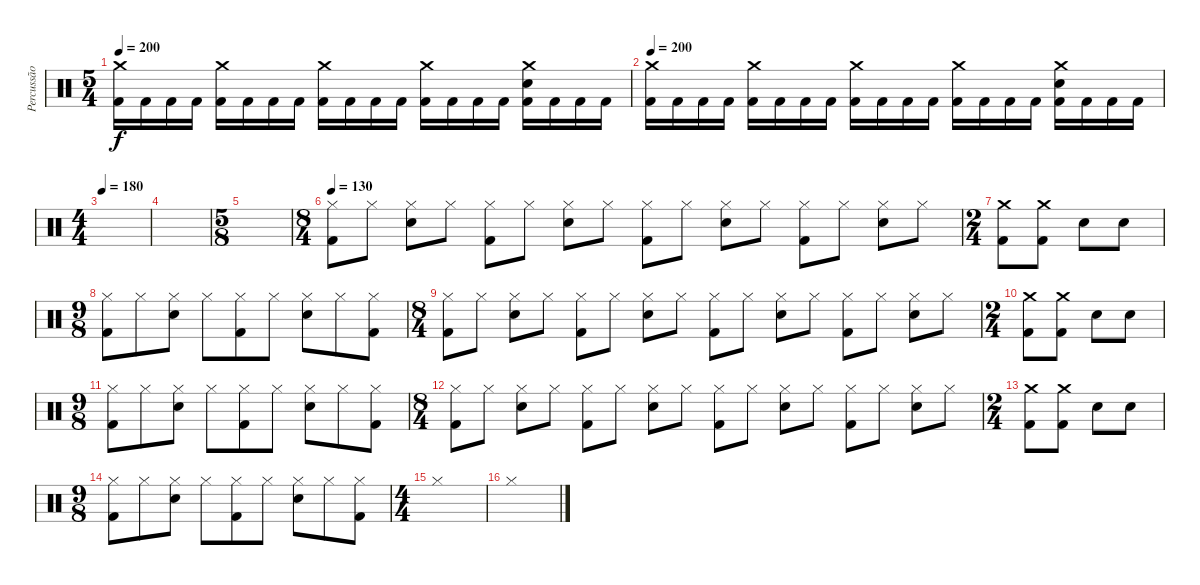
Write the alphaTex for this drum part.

\track ("Percussão" "Percussão") {instrument percussion}
\staff {score}
\articulation defaults
\ts (5 4)
\tempo 200
\clef neutral
\ks c
("Crash medium (hit)" "Kick (hit) 2").16{dy f} "Kick (hit) 2".16 "Kick (hit) 2".16 "Kick (hit) 2".16 ("Crash medium (hit)" "Kick (hit) 2").16 "Kick (hit) 2".16 "Kick (hit) 2".16 "Kick (hit) 2".16 ("Crash medium (hit)" "Kick (hit) 2").16 "Kick (hit) 2".16 "Kick (hit) 2".16 "Kick (hit) 2".16 ("Crash medium (hit)" "Kick (hit) 2").16 "Kick (hit) 2".16 "Kick (hit) 2".16 "Kick (hit) 2".16 ("Crash medium (hit)" "Electric Snare (hit)" "Kick (hit) 2").16 "Kick (hit) 2".16 "Kick (hit) 2".16 "Kick (hit) 2".16 |
\tempo 200
("Crash medium (hit)" "Kick (hit) 2").16 "Kick (hit) 2".16 "Kick (hit) 2".16 "Kick (hit) 2".16 ("Crash medium (hit)" "Kick (hit) 2").16 "Kick (hit) 2".16 "Kick (hit) 2".16 "Kick (hit) 2".16 ("Crash medium (hit)" "Kick (hit) 2").16 "Kick (hit) 2".16 "Kick (hit) 2".16 "Kick (hit) 2".16 ("Crash medium (hit)" "Kick (hit) 2").16 "Kick (hit) 2".16 "Kick (hit) 2".16 "Kick (hit) 2".16 ("Crash medium (hit)" "Electric Snare (hit)" "Kick (hit) 2").16 "Kick (hit) 2".16 "Kick (hit) 2".16 "Kick (hit) 2".16 |
\ts (4 4)
\tempo 180
|
|
\ts (5 8)
|
\ts (8 4)
\tempo 130
("Hi-Hat (closed)" "Kick (hit) 2").8 "Hi-Hat (closed)".8 ("Hi-Hat (closed)" "Snare (hit) 2").8 "Hi-Hat (closed)".8 ("Hi-Hat (closed)" "Kick (hit) 2").8 "Hi-Hat (closed)".8 ("Hi-Hat (closed)" "Snare (hit) 2").8 "Hi-Hat (closed)".8 ("Hi-Hat (closed)" "Kick (hit) 2").8 "Hi-Hat (closed)".8 ("Hi-Hat (closed)" "Snare (hit) 2").8 "Hi-Hat (closed)".8 ("Hi-Hat (closed)" "Kick (hit) 2").8 "Hi-Hat (closed)".8 ("Hi-Hat (closed)" "Snare (hit) 2").8 "Hi-Hat (closed)".8 |
\ts (2 4)
("Crash medium (hit)" "Kick (hit) 2").8 ("Crash medium (hit)" "Kick (hit) 2").8 "Electric Snare (hit)".8 "Electric Snare (hit)".8 |
\ts (9 8)
("Hi-Hat (closed)" "Kick (hit) 2").8 "Hi-Hat (closed)".8 ("Hi-Hat (closed)" "Snare (hit) 2").8 "Hi-Hat (closed)".8 ("Hi-Hat (closed)" "Kick (hit) 2").8 "Hi-Hat (closed)".8 ("Hi-Hat (closed)" "Snare (hit) 2").8 "Hi-Hat (closed)".8 ("Hi-Hat (closed)" "Kick (hit) 2").8 |
\ts (8 4)
("Hi-Hat (closed)" "Kick (hit) 2").8 "Hi-Hat (closed)".8 ("Hi-Hat (closed)" "Snare (hit) 2").8 "Hi-Hat (closed)".8 ("Hi-Hat (closed)" "Kick (hit) 2").8 "Hi-Hat (closed)".8 ("Hi-Hat (closed)" "Snare (hit) 2").8 "Hi-Hat (closed)".8 ("Hi-Hat (closed)" "Kick (hit) 2").8 "Hi-Hat (closed)".8 ("Hi-Hat (closed)" "Snare (hit) 2").8 "Hi-Hat (closed)".8 ("Hi-Hat (closed)" "Kick (hit) 2").8 "Hi-Hat (closed)".8 ("Hi-Hat (closed)" "Snare (hit) 2").8 "Hi-Hat (closed)".8 |
\ts (2 4)
("Crash medium (hit)" "Kick (hit) 2").8 ("Crash medium (hit)" "Kick (hit) 2").8 "Electric Snare (hit)".8 "Electric Snare (hit)".8 |
\ts (9 8)
("Hi-Hat (closed)" "Kick (hit) 2").8 "Hi-Hat (closed)".8 ("Hi-Hat (closed)" "Snare (hit) 2").8 "Hi-Hat (closed)".8 ("Hi-Hat (closed)" "Kick (hit) 2").8 "Hi-Hat (closed)".8 ("Hi-Hat (closed)" "Snare (hit) 2").8 "Hi-Hat (closed)".8 ("Hi-Hat (closed)" "Kick (hit) 2").8 |
\ts (8 4)
("Hi-Hat (closed)" "Kick (hit) 2").8 "Hi-Hat (closed)".8 ("Hi-Hat (closed)" "Snare (hit) 2").8 "Hi-Hat (closed)".8 ("Hi-Hat (closed)" "Kick (hit) 2").8 "Hi-Hat (closed)".8 ("Hi-Hat (closed)" "Snare (hit) 2").8 "Hi-Hat (closed)".8 ("Hi-Hat (closed)" "Kick (hit) 2").8 "Hi-Hat (closed)".8 ("Hi-Hat (closed)" "Snare (hit) 2").8 "Hi-Hat (closed)".8 ("Hi-Hat (closed)" "Kick (hit) 2").8 "Hi-Hat (closed)".8 ("Hi-Hat (closed)" "Snare (hit) 2").8 "Hi-Hat (closed)".8 |
\ts (2 4)
("Crash medium (hit)" "Kick (hit) 2").8 ("Crash medium (hit)" "Kick (hit) 2").8 "Electric Snare (hit)".8 "Electric Snare (hit)".8 |
\ts (9 8)
("Hi-Hat (closed)" "Kick (hit) 2").8 "Hi-Hat (closed)".8 ("Hi-Hat (closed)" "Snare (hit) 2").8 "Hi-Hat (closed)".8 ("Hi-Hat (closed)" "Kick (hit) 2").8 "Hi-Hat (closed)".8 ("Hi-Hat (closed)" "Snare (hit) 2").8 "Hi-Hat (closed)".8 ("Hi-Hat (closed)" "Kick (hit) 2").8 |
\ts (4 4)
"Hi-Hat (closed)".1 |
"Hi-Hat (closed)".1
